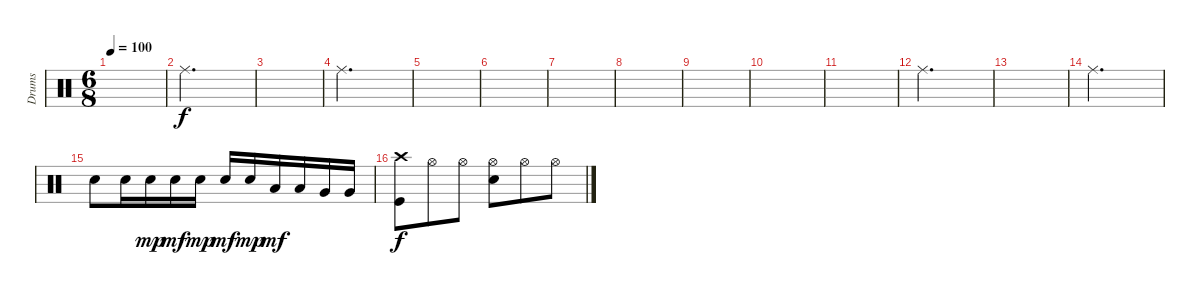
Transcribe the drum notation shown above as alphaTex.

\track ("Drums" "Drums") {instrument percussion}
\staff {score}
\articulation defaults
\ts (6 8)
\tempo 100
\clef neutral
\ks c
|
"Ride (middle)".2{d} |
|
"Ride (middle)".2{d} |
|
|
|
|
|
|
|
"Ride (middle)".2{d} |
|
"Ride (middle)".2{d} |
"Electric Snare (hit)".8 "Electric Snare (hit)".16 "Electric Snare (hit)".16{dy mp} "Electric Snare (hit)".16{dy mf} "Electric Snare (hit)".16{dy mp} "Electric Snare (hit)".16{dy mf} "Electric Snare (hit)".16{dy mp} "Low Tom (hit)".16{dy mf} "Low Tom (hit)".16 "Very Low Tom (hit)".16 "Very Low Tom (hit)".16 |
("Crash high (hit)" "Kick (hit)").8{dy f} "Hi-Hat (open)".8 "Hi-Hat (open)".8 ("Hi-Hat (open)" "Electric Snare (hit)").8 "Hi-Hat (open)".8 "Hi-Hat (open)".8
